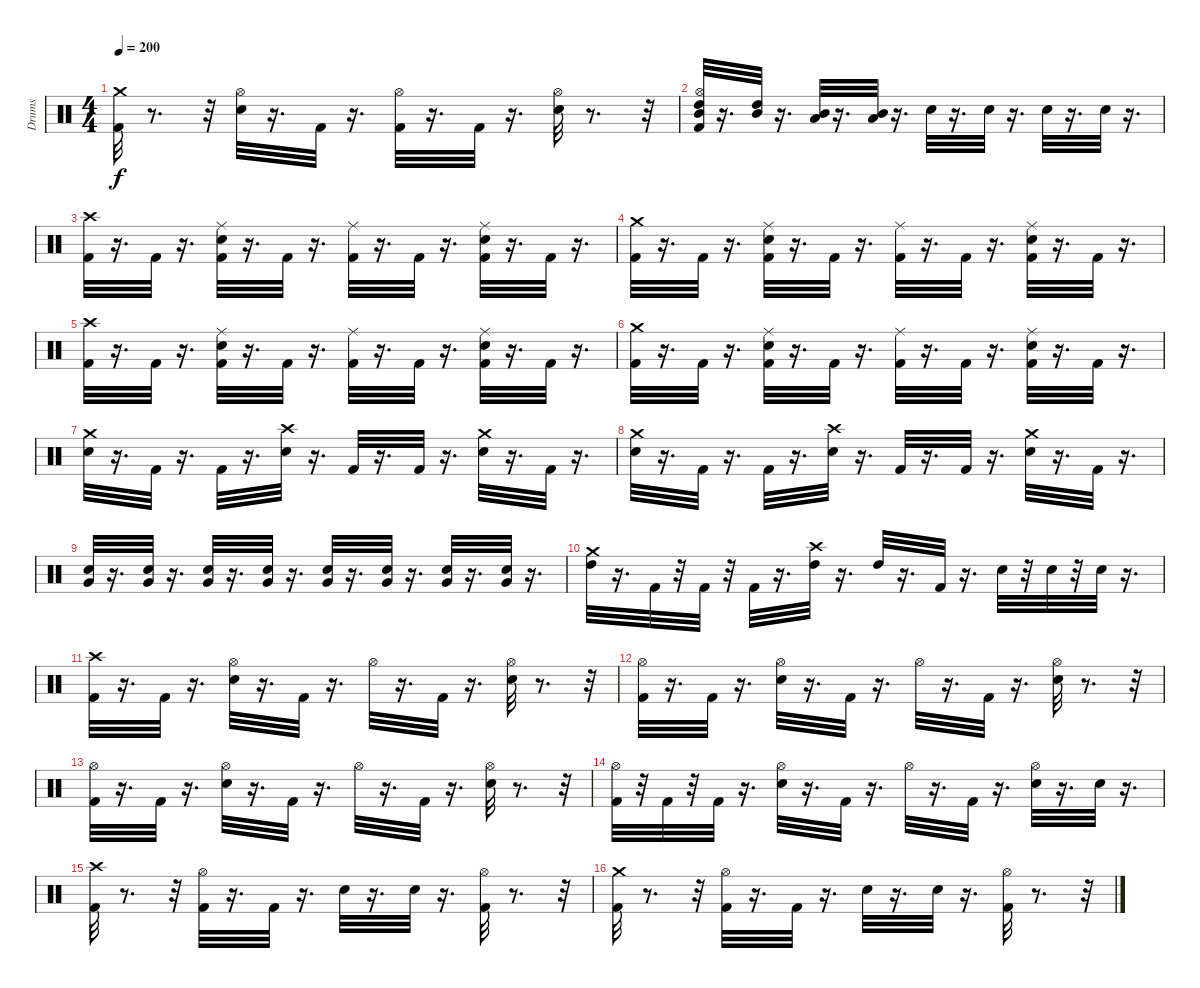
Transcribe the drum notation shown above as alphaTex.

\track ("Drums" "Drums") {instrument percussion}
\staff {score}
\articulation defaults
\ts (4 4)
\tempo 200
\clef neutral
\ks c
("Crash medium (hit)" "Kick (hit) 2").32{dy f} r.8{d} r.32 ("Hi-Hat (open)" "Electric Snare (hit)").32 r.16{d} "Kick (hit) 2".32 r.16{d} ("Hi-Hat (open)" "Kick (hit) 2").32 r.16{d} "Kick (hit) 2".32 r.16{d} ("Hi-Hat (open)" "Electric Snare (hit)").32 r.8{d} r.32 |
("Mid Tom (hit)" "High Tom (hit)" "Hi-Hat (open)" "Kick (hit) 2").32 r.16{d} ("Mid Tom (hit)" "High Tom (hit)").32 r.16{d} ("Low Tom (hit)" "Mid Tom (hit)").32 r.16{d} ("Low Tom (hit)" "Mid Tom (hit)").32 r.16{d} "Electric Snare (hit)".32 r.16{d} "Electric Snare (hit)".32 r.16{d} "Electric Snare (hit)".32 r.16{d} "Electric Snare (hit)".32 r.16{d} |
("Crash high (hit)" "Kick (hit) 2").32 r.16{d} "Kick (hit) 2".32 r.16{d} ("Ride (middle)" "Electric Snare (hit)" "Kick (hit) 2").32 r.16{d} "Kick (hit) 2".32 r.16{d} ("Ride (middle)" "Kick (hit) 2").32 r.16{d} "Kick (hit) 2".32 r.16{d} ("Ride (middle)" "Kick (hit) 2" "Electric Snare (hit)").32 r.16{d} "Kick (hit) 2".32 r.16{d} |
("Crash medium (hit)" "Kick (hit) 2").32 r.16{d} "Kick (hit) 2".32 r.16{d} ("Electric Snare (hit)" "Kick (hit) 2" "Ride (middle)").32 r.16{d} "Kick (hit) 2".32 r.16{d} ("Ride (middle)" "Kick (hit) 2").32 r.16{d} "Kick (hit) 2".32 r.16{d} ("Ride (middle)" "Kick (hit) 2" "Electric Snare (hit)").32 r.16{d} "Kick (hit) 2".32 r.16{d} |
("Crash high (hit)" "Kick (hit) 2").32 r.16{d} "Kick (hit) 2".32 r.16{d} ("Ride (middle)" "Electric Snare (hit)" "Kick (hit) 2").32 r.16{d} "Kick (hit) 2".32 r.16{d} ("Ride (middle)" "Kick (hit) 2").32 r.16{d} "Kick (hit) 2".32 r.16{d} ("Ride (middle)" "Kick (hit) 2" "Electric Snare (hit)").32 r.16{d} "Kick (hit) 2".32 r.16{d} |
("Crash medium (hit)" "Kick (hit) 2").32 r.16{d} "Kick (hit) 2".32 r.16{d} ("Electric Snare (hit)" "Kick (hit) 2" "Ride (middle)").32 r.16{d} "Kick (hit) 2".32 r.16{d} ("Ride (middle)" "Kick (hit) 2").32 r.16{d} "Kick (hit) 2".32 r.16{d} ("Ride (middle)" "Kick (hit) 2" "Electric Snare (hit)").32 r.16{d} "Kick (hit) 2".32 r.16{d} |
("Crash medium (hit)" "Electric Snare (hit)").32 r.16{d} "Kick (hit) 2".32 r.16{d} "Kick (hit) 2".32 r.16{d} ("Electric Snare (hit)" "Crash high (hit)").32 r.16{d} "Kick (hit) 2".32 r.16{d} "Kick (hit) 2".32 r.16{d} ("Electric Snare (hit)" "Crash medium (hit)").32 r.16{d} "Kick (hit) 2".32 r.16{d} |
("Electric Snare (hit)" "Crash medium (hit)").32 r.16{d} "Kick (hit) 2".32 r.16{d} "Kick (hit) 2".32 r.16{d} ("Electric Snare (hit)" "Crash high (hit)").32 r.16{d} "Kick (hit) 2".32 r.16{d} "Kick (hit) 2".32 r.16{d} ("Electric Snare (hit)" "Crash medium (hit)").32 r.16{d} "Kick (hit) 2".32 r.16{d} |
("Electric Snare (hit)" "Very Low Tom (hit)").32 r.16{d} ("Electric Snare (hit)" "Very Low Tom (hit)").32 r.16{d} ("Electric Snare (hit)" "Very Low Tom (hit)").32 r.16{d} ("Electric Snare (hit)" "Very Low Tom (hit)").32 r.16{d} ("Electric Snare (hit)" "Very Low Tom (hit)").32 r.16{d} ("Electric Snare (hit)" "Very Low Tom (hit)").32 r.16{d} ("Electric Snare (hit)" "Very Low Tom (hit)").32 r.16{d} ("Electric Snare (hit)" "Very Low Tom (hit)").32 r.16{d} |
("High Tom (hit)" "Crash medium (hit)").32 r.16{d} "Kick (hit) 2".32 r.32 "Kick (hit) 2".32 r.32 "Kick (hit) 2".32 r.16{d} ("Crash high (hit)" "High Tom (hit)").32 r.16{d} "High Tom (hit)".32 r.16{d} "Kick (hit) 2".32 r.16{d} "Electric Snare (hit)".32 r.32 "Electric Snare (hit)".32 r.32 "Electric Snare (hit)".32 r.16{d} |
("Crash high (hit)" "Kick (hit) 2").32 r.16{d} "Kick (hit) 2".32 r.16{d} ("Hi-Hat (open)" "Electric Snare (hit)").32 r.16{d} "Kick (hit) 2".32 r.16{d} "Hi-Hat (open)".32 r.16{d} "Kick (hit) 2".32 r.16{d} ("Hi-Hat (open)" "Electric Snare (hit)").32 r.8{d} r.32 |
("Hi-Hat (open)" "Kick (hit) 2").32 r.16{d} "Kick (hit) 2".32 r.16{d} ("Hi-Hat (open)" "Electric Snare (hit)").32 r.16{d} "Kick (hit) 2".32 r.16{d} "Hi-Hat (open)".32 r.16{d} "Kick (hit) 2".32 r.16{d} ("Hi-Hat (open)" "Electric Snare (hit)").32 r.8{d} r.32 |
("Hi-Hat (open)" "Kick (hit) 2").32 r.16{d} "Kick (hit) 2".32 r.16{d} ("Hi-Hat (open)" "Electric Snare (hit)").32 r.16{d} "Kick (hit) 2".32 r.16{d} "Hi-Hat (open)".32 r.16{d} "Kick (hit) 2".32 r.16{d} ("Hi-Hat (open)" "Electric Snare (hit)").32 r.8{d} r.32 |
("Hi-Hat (open)" "Kick (hit) 2").32 r.32 "Kick (hit) 2".32 r.32 "Kick (hit) 2".32 r.16{d} ("Hi-Hat (open)" "Electric Snare (hit)").32 r.16{d} "Kick (hit) 2".32 r.16{d} "Hi-Hat (open)".32 r.16{d} "Kick (hit) 2".32 r.16{d} ("Hi-Hat (open)" "Electric Snare (hit)").32 r.16{d} "Electric Snare (hit)".32 r.16{d} |
("Crash high (hit)" "Kick (hit) 2").32 r.8{d} r.32 ("Hi-Hat (open)" "Kick (hit) 2").32 r.16{d} "Kick (hit) 2".32 r.16{d} "Electric Snare (hit)".32 r.16{d} "Electric Snare (hit)".32 r.16{d} ("Kick (hit) 2" "Hi-Hat (open)").32 r.8{d} r.32 |
("Crash medium (hit)" "Kick (hit) 2").32 r.8{d} r.32 ("Hi-Hat (open)" "Kick (hit) 2").32 r.16{d} "Kick (hit) 2".32 r.16{d} "Electric Snare (hit)".32 r.16{d} "Electric Snare (hit)".32 r.16{d} ("Hi-Hat (open)" "Kick (hit) 2").32 r.8{d} r.32
